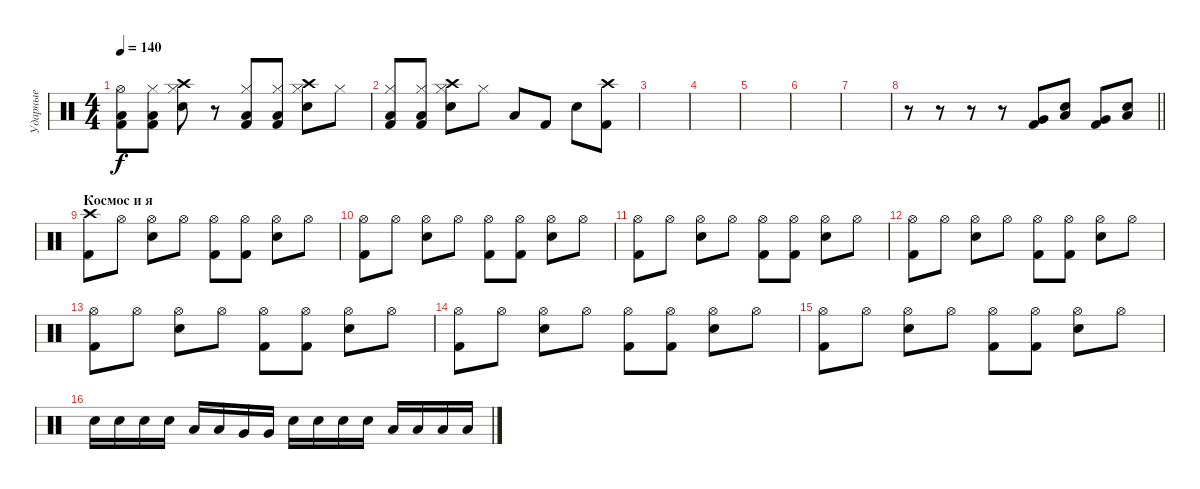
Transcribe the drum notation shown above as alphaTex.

\track ("Ударные" "Ударные") {instrument percussion}
\staff {score}
\articulation defaults
\ts (4 4)
\tempo 140
\clef neutral
\ks c
("Hi-Hat (open)" "Low Floor Tom (hit)" "Kick (hit) 2").8{dy f} ("Hi-Hat (closed)" "Low Floor Tom (hit)" "Kick (hit) 2").8 ("Hi-Hat (closed)" "Crash high (hit)" "Electric Snare (hit)").8 r.8 ("Hi-Hat (closed)" "Low Tom (hit)" "Kick (hit) 2").8 ("Hi-Hat (closed)" "Low Tom (hit)" "Kick (hit) 2").8 ("Hi-Hat (closed)" "Crash high (hit)" "Electric Snare (hit)").8 "Hi-Hat (closed)".8 |
("Hi-Hat (closed)" "Low Tom (hit)" "Kick (hit) 2").8 ("Hi-Hat (closed)" "Low Tom (hit)" "Kick (hit) 2").8 ("Hi-Hat (closed)" "Crash high (hit)" "Electric Snare (hit)").8 "Hi-Hat (closed)".8 "Low Tom (hit)".8 "Kick (hit) 2".8 "Electric Snare (hit)".8 ("Crash high (hit)" "Kick (hit) 2").8 |
|
|
|
|
|
\barLineRight lightlight
r.8 r.8 r.8 r.8 ("Kick (hit) 2" "Very Low Tom (hit)").8 ("Low Tom (hit)" "Electric Snare (hit)").8 ("Kick (hit) 2" "Very Low Tom (hit)").8 ("Low Tom (hit)" "Electric Snare (hit)").8 |
\section ("" "Космос и я")
("Crash high (hit)" "Kick (hit) 2").8 "Hi-Hat (open)".8 ("Hi-Hat (open)" "Electric Snare (hit)").8 "Hi-Hat (open)".8 ("Hi-Hat (open)" "Kick (hit) 2").8 ("Hi-Hat (open)" "Kick (hit) 2").8 ("Hi-Hat (open)" "Electric Snare (hit)").8 "Hi-Hat (open)".8 |
("Hi-Hat (open)" "Kick (hit) 2").8 "Hi-Hat (open)".8 ("Hi-Hat (open)" "Electric Snare (hit)").8 "Hi-Hat (open)".8 ("Hi-Hat (open)" "Kick (hit) 2").8 ("Hi-Hat (open)" "Kick (hit) 2").8 ("Hi-Hat (open)" "Electric Snare (hit)").8 "Hi-Hat (open)".8 |
("Hi-Hat (open)" "Kick (hit) 2").8 "Hi-Hat (open)".8 ("Hi-Hat (open)" "Electric Snare (hit)").8 "Hi-Hat (open)".8 ("Hi-Hat (open)" "Kick (hit) 2").8 ("Hi-Hat (open)" "Kick (hit) 2").8 ("Hi-Hat (open)" "Electric Snare (hit)").8 "Hi-Hat (open)".8 |
("Hi-Hat (open)" "Kick (hit) 2").8 "Hi-Hat (open)".8 ("Hi-Hat (open)" "Electric Snare (hit)").8 "Hi-Hat (open)".8 ("Hi-Hat (open)" "Kick (hit) 2").8 ("Hi-Hat (open)" "Kick (hit) 2").8 ("Hi-Hat (open)" "Electric Snare (hit)").8 "Hi-Hat (open)".8 |
("Hi-Hat (open)" "Kick (hit) 2").8 "Hi-Hat (open)".8 ("Hi-Hat (open)" "Electric Snare (hit)").8 "Hi-Hat (open)".8 ("Hi-Hat (open)" "Kick (hit) 2").8 ("Hi-Hat (open)" "Kick (hit) 2").8 ("Hi-Hat (open)" "Electric Snare (hit)").8 "Hi-Hat (open)".8 |
("Hi-Hat (open)" "Kick (hit) 2").8 "Hi-Hat (open)".8 ("Hi-Hat (open)" "Electric Snare (hit)").8 "Hi-Hat (open)".8 ("Hi-Hat (open)" "Kick (hit) 2").8 ("Hi-Hat (open)" "Kick (hit) 2").8 ("Hi-Hat (open)" "Electric Snare (hit)").8 "Hi-Hat (open)".8 |
("Hi-Hat (open)" "Kick (hit) 2").8 "Hi-Hat (open)".8 ("Hi-Hat (open)" "Electric Snare (hit)").8 "Hi-Hat (open)".8 ("Hi-Hat (open)" "Kick (hit) 2").8 ("Hi-Hat (open)" "Kick (hit) 2").8 ("Hi-Hat (open)" "Electric Snare (hit)").8 "Hi-Hat (open)".8 |
"Electric Snare (hit)".16 "Electric Snare (hit)".16 "Electric Snare (hit)".16 "Electric Snare (hit)".16 "Low Tom (hit)".16 "Low Tom (hit)".16 "Very Low Tom (hit)".16 "Very Low Tom (hit)".16 "Electric Snare (hit)".16 "Electric Snare (hit)".16 "Electric Snare (hit)".16 "Electric Snare (hit)".16 "Low Tom (hit)".16 "Low Tom (hit)".16 "Low Floor Tom (hit)".16 "Low Floor Tom (hit)".16
